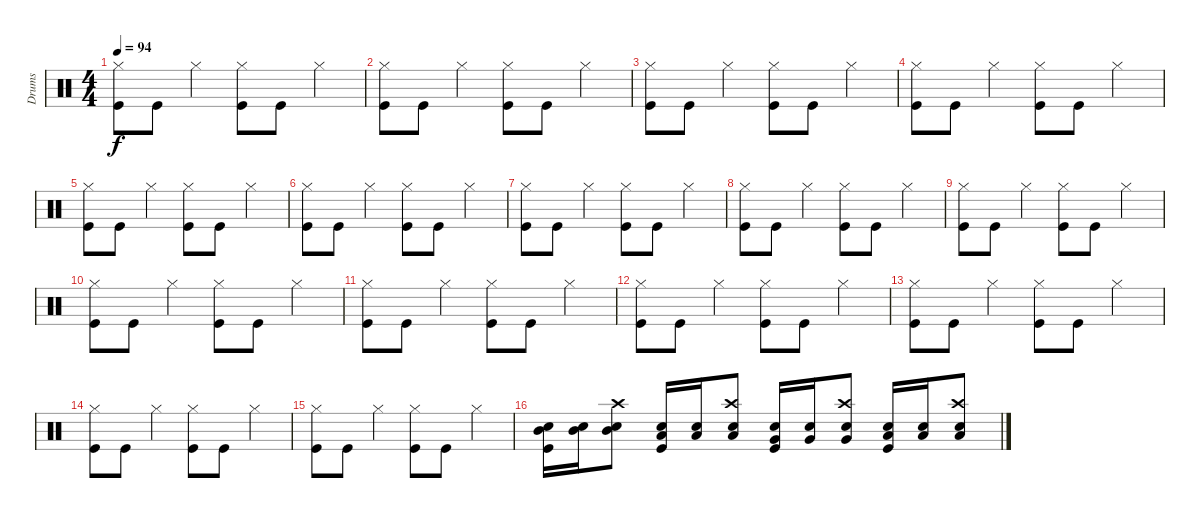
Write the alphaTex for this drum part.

\track ("Drums" "Drums") {instrument percussion}
\staff {score}
\articulation defaults
\ts (4 4)
\tempo 94
\clef neutral
\ks c
("Hi-Hat (closed)" "Kick (hit)").8{dy f volume 3} "Kick (hit)".8 "Hi-Hat (closed)".4 ("Hi-Hat (closed)" "Kick (hit)").8 "Kick (hit)".8 "Hi-Hat (closed)".4 |
("Hi-Hat (closed)" "Kick (hit)").8{volume 5} "Kick (hit)".8 "Hi-Hat (closed)".4 ("Hi-Hat (closed)" "Kick (hit)").8 "Kick (hit)".8 "Hi-Hat (closed)".4 |
("Hi-Hat (closed)" "Kick (hit)").8{volume 9} "Kick (hit)".8 "Hi-Hat (closed)".4 ("Hi-Hat (closed)" "Kick (hit)").8 "Kick (hit)".8 "Hi-Hat (closed)".4 |
("Hi-Hat (closed)" "Kick (hit)").8{volume 13} "Kick (hit)".8 "Hi-Hat (closed)".4 ("Hi-Hat (closed)" "Kick (hit)").8 "Kick (hit)".8 "Hi-Hat (closed)".4 |
("Hi-Hat (closed)" "Kick (hit)").8 "Kick (hit)".8 "Hi-Hat (closed)".4 ("Hi-Hat (closed)" "Kick (hit)").8 "Kick (hit)".8 "Hi-Hat (closed)".4 |
("Hi-Hat (closed)" "Kick (hit)").8 "Kick (hit)".8 "Hi-Hat (closed)".4 ("Hi-Hat (closed)" "Kick (hit)").8 "Kick (hit)".8 "Hi-Hat (closed)".4 |
("Hi-Hat (closed)" "Kick (hit)").8 "Kick (hit)".8 "Hi-Hat (closed)".4 ("Hi-Hat (closed)" "Kick (hit)").8 "Kick (hit)".8 "Hi-Hat (closed)".4 |
("Hi-Hat (closed)" "Kick (hit)").8 "Kick (hit)".8 "Hi-Hat (closed)".4 ("Hi-Hat (closed)" "Kick (hit)").8 "Kick (hit)".8 "Hi-Hat (closed)".4 |
("Hi-Hat (closed)" "Kick (hit)").8 "Kick (hit)".8 "Hi-Hat (closed)".4 ("Hi-Hat (closed)" "Kick (hit)").8 "Kick (hit)".8 "Hi-Hat (closed)".4 |
("Hi-Hat (closed)" "Kick (hit)").8 "Kick (hit)".8 "Hi-Hat (closed)".4 ("Hi-Hat (closed)" "Kick (hit)").8 "Kick (hit)".8 "Hi-Hat (closed)".4 |
("Hi-Hat (closed)" "Kick (hit)").8 "Kick (hit)".8 "Hi-Hat (closed)".4 ("Hi-Hat (closed)" "Kick (hit)").8 "Kick (hit)".8 "Hi-Hat (closed)".4 |
("Hi-Hat (closed)" "Kick (hit)").8 "Kick (hit)".8 "Hi-Hat (closed)".4 ("Hi-Hat (closed)" "Kick (hit)").8 "Kick (hit)".8 "Hi-Hat (closed)".4 |
("Hi-Hat (closed)" "Kick (hit)").8 "Kick (hit)".8 "Hi-Hat (closed)".4 ("Hi-Hat (closed)" "Kick (hit)").8 "Kick (hit)".8 "Hi-Hat (closed)".4 |
("Hi-Hat (closed)" "Kick (hit)").8 "Kick (hit)".8 "Hi-Hat (closed)".4 ("Hi-Hat (closed)" "Kick (hit)").8 "Kick (hit)".8 "Hi-Hat (closed)".4 |
("Hi-Hat (closed)" "Kick (hit)").8 "Kick (hit)".8 "Hi-Hat (closed)".4 ("Hi-Hat (closed)" "Kick (hit)").8 "Kick (hit)".8 "Hi-Hat (closed)".4 |
("Snare (hit) 2" "Mid Tom (hit)" "Kick (hit)").16 ("Snare (hit) 2" "Mid Tom (hit)").16 ("Crash high (hit)" "Snare (hit) 2" "Mid Tom (hit)").8 ("Snare (hit) 2" "Low Tom (hit)" "Kick (hit)").16 ("Snare (hit) 2" "Low Tom (hit)").16 ("Crash high (hit)" "Snare (hit) 2" "Low Tom (hit)").8 ("Snare (hit) 2" "Very Low Tom (hit)" "Kick (hit)").16 ("Snare (hit) 2" "Very Low Tom (hit)").16 ("Crash high (hit)" "Snare (hit) 2" "Very Low Tom (hit)").8 ("Snare (hit) 2" "Low Floor Tom (hit)" "Kick (hit)").16 ("Snare (hit) 2" "Low Floor Tom (hit)").16 ("Crash high (hit)" "Snare (hit) 2" "Low Floor Tom (hit)").8
